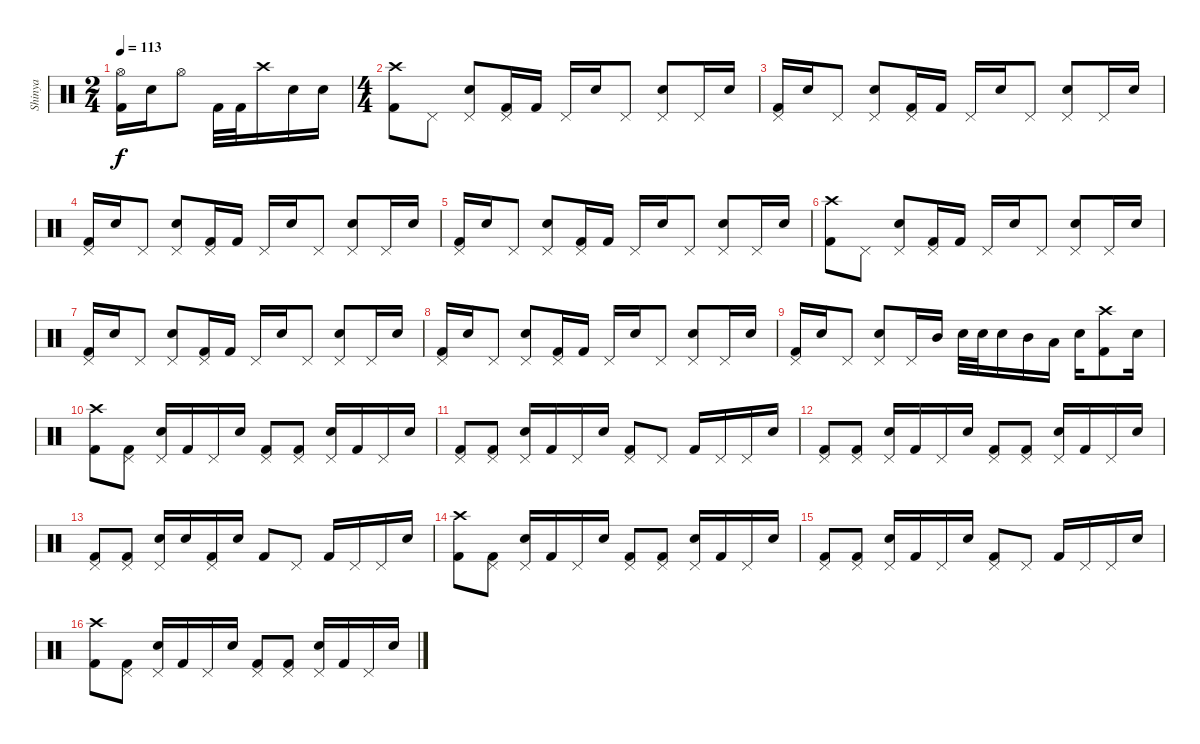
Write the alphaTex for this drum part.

\track ("Shinya" "Shinya") {instrument percussion}
\staff {score}
\articulation defaults
\ts (2 4)
\tempo 113
\clef neutral
\ks c
("Hi-Hat (open)" "Kick (hit) 2").16{dy f} "Electric Snare (hit)".16 "Hi-Hat (open)".8 "Kick (hit) 2".32 "Kick (hit) 2".32 "Crash high (hit)".16 "Electric Snare (hit)".16 "Electric Snare (hit)".16 |
\ts (4 4)
("Crash high (hit)" "Kick (hit) 2").8 "Pedal Hi-Hat (hit)".8 ("Pedal Hi-Hat (hit)" "Electric Snare (hit)").8 ("Pedal Hi-Hat (hit)" "Kick (hit) 2").16 "Kick (hit) 2".16 "Pedal Hi-Hat (hit)".16 "Electric Snare (hit)".16 "Pedal Hi-Hat (hit)".8 ("Pedal Hi-Hat (hit)" "Electric Snare (hit)").8 "Pedal Hi-Hat (hit)".16 "Electric Snare (hit)".16 |
("Pedal Hi-Hat (hit)" "Kick (hit) 2").16 "Electric Snare (hit)".16 "Pedal Hi-Hat (hit)".8 ("Pedal Hi-Hat (hit)" "Electric Snare (hit)").8 ("Pedal Hi-Hat (hit)" "Kick (hit) 2").16 "Kick (hit) 2".16 "Pedal Hi-Hat (hit)".16 "Electric Snare (hit)".16 "Pedal Hi-Hat (hit)".8 ("Pedal Hi-Hat (hit)" "Electric Snare (hit)").8 "Pedal Hi-Hat (hit)".16 "Electric Snare (hit)".16 |
("Pedal Hi-Hat (hit)" "Kick (hit) 2").16 "Electric Snare (hit)".16 "Pedal Hi-Hat (hit)".8 ("Pedal Hi-Hat (hit)" "Electric Snare (hit)").8 ("Pedal Hi-Hat (hit)" "Kick (hit) 2").16 "Kick (hit) 2".16 "Pedal Hi-Hat (hit)".16 "Electric Snare (hit)".16 "Pedal Hi-Hat (hit)".8 ("Pedal Hi-Hat (hit)" "Electric Snare (hit)").8 "Pedal Hi-Hat (hit)".16 "Electric Snare (hit)".16 |
("Pedal Hi-Hat (hit)" "Kick (hit) 2").16 "Electric Snare (hit)".16 "Pedal Hi-Hat (hit)".8 ("Pedal Hi-Hat (hit)" "Electric Snare (hit)").8 ("Pedal Hi-Hat (hit)" "Kick (hit) 2").16 "Kick (hit) 2".16 "Pedal Hi-Hat (hit)".16 "Electric Snare (hit)".16 "Pedal Hi-Hat (hit)".8 ("Pedal Hi-Hat (hit)" "Electric Snare (hit)").8 "Pedal Hi-Hat (hit)".16 "Electric Snare (hit)".16 |
("Crash high (hit)" "Kick (hit) 2").8 "Pedal Hi-Hat (hit)".8 ("Pedal Hi-Hat (hit)" "Electric Snare (hit)").8 ("Pedal Hi-Hat (hit)" "Kick (hit) 2").16 "Kick (hit) 2".16 "Pedal Hi-Hat (hit)".16 "Electric Snare (hit)".16 "Pedal Hi-Hat (hit)".8 ("Pedal Hi-Hat (hit)" "Electric Snare (hit)").8 "Pedal Hi-Hat (hit)".16 "Electric Snare (hit)".16 |
("Pedal Hi-Hat (hit)" "Kick (hit) 2").16 "Electric Snare (hit)".16 "Pedal Hi-Hat (hit)".8 ("Pedal Hi-Hat (hit)" "Electric Snare (hit)").8 ("Pedal Hi-Hat (hit)" "Kick (hit) 2").16 "Kick (hit) 2".16 "Pedal Hi-Hat (hit)".16 "Electric Snare (hit)".16 "Pedal Hi-Hat (hit)".8 ("Pedal Hi-Hat (hit)" "Electric Snare (hit)").8 "Pedal Hi-Hat (hit)".16 "Electric Snare (hit)".16 |
("Pedal Hi-Hat (hit)" "Kick (hit) 2").16 "Electric Snare (hit)".16 "Pedal Hi-Hat (hit)".8 ("Pedal Hi-Hat (hit)" "Electric Snare (hit)").8 ("Pedal Hi-Hat (hit)" "Kick (hit) 2").16 "Kick (hit) 2".16 "Pedal Hi-Hat (hit)".16 "Electric Snare (hit)".16 "Pedal Hi-Hat (hit)".8 ("Pedal Hi-Hat (hit)" "Electric Snare (hit)").8 "Pedal Hi-Hat (hit)".16 "Electric Snare (hit)".16 |
("Pedal Hi-Hat (hit)" "Kick (hit) 2").16 "Electric Snare (hit)".16 "Pedal Hi-Hat (hit)".8 ("Pedal Hi-Hat (hit)" "Electric Snare (hit)").8 "Pedal Hi-Hat (hit)".16 "Mid Tom (hit)".16 "Electric Snare (hit)".32 "Electric Snare (hit)".32 "Electric Snare (hit)".16 "Mid Tom (hit)".16 "Low Tom (hit)".16 "Electric Snare (hit)".16 ("Crash high (hit)" "Kick (hit) 2").8 "Electric Snare (hit)".16 |
("Crash high (hit)" "Kick (hit) 2").8 ("Pedal Hi-Hat (hit)" "Kick (hit) 2").8 ("Pedal Hi-Hat (hit)" "Electric Snare (hit)").16 "Kick (hit) 2".16 "Pedal Hi-Hat (hit)".16 "Electric Snare (hit)".16 ("Pedal Hi-Hat (hit)" "Kick (hit) 2").8 ("Pedal Hi-Hat (hit)" "Kick (hit) 2").8 ("Pedal Hi-Hat (hit)" "Electric Snare (hit)").16 "Kick (hit) 2".16 "Pedal Hi-Hat (hit)".16 "Electric Snare (hit)".16 |
("Pedal Hi-Hat (hit)" "Kick (hit) 2").8 ("Pedal Hi-Hat (hit)" "Kick (hit) 2").8 ("Pedal Hi-Hat (hit)" "Electric Snare (hit)").16 "Kick (hit) 2".16 "Pedal Hi-Hat (hit)".16 "Electric Snare (hit)".16 ("Pedal Hi-Hat (hit)" "Kick (hit) 2").8 "Pedal Hi-Hat (hit)".8 "Kick (hit) 2".16 "Pedal Hi-Hat (hit)".16 "Pedal Hi-Hat (hit)".16 "Electric Snare (hit)".16 |
("Pedal Hi-Hat (hit)" "Kick (hit) 2").8 ("Pedal Hi-Hat (hit)" "Kick (hit) 2").8 ("Pedal Hi-Hat (hit)" "Electric Snare (hit)").16 "Kick (hit) 2".16 "Pedal Hi-Hat (hit)".16 "Electric Snare (hit)".16 ("Pedal Hi-Hat (hit)" "Kick (hit) 2").8 ("Pedal Hi-Hat (hit)" "Kick (hit) 2").8 ("Pedal Hi-Hat (hit)" "Electric Snare (hit)").16 "Kick (hit) 2".16 "Pedal Hi-Hat (hit)".16 "Electric Snare (hit)".16 |
("Pedal Hi-Hat (hit)" "Kick (hit) 2").8 ("Pedal Hi-Hat (hit)" "Kick (hit) 2").8 ("Pedal Hi-Hat (hit)" "Electric Snare (hit)").16 "Electric Snare (hit)".16 ("Pedal Hi-Hat (hit)" "Kick (hit) 2").16 "Electric Snare (hit)".16 "Kick (hit) 2".8 "Pedal Hi-Hat (hit)".8 "Kick (hit) 2".16 "Pedal Hi-Hat (hit)".16 "Pedal Hi-Hat (hit)".16 "Electric Snare (hit)".16 |
("Crash high (hit)" "Kick (hit) 2").8 ("Pedal Hi-Hat (hit)" "Kick (hit) 2").8 ("Pedal Hi-Hat (hit)" "Electric Snare (hit)").16 "Kick (hit) 2".16 "Pedal Hi-Hat (hit)".16 "Electric Snare (hit)".16 ("Pedal Hi-Hat (hit)" "Kick (hit) 2").8 ("Pedal Hi-Hat (hit)" "Kick (hit) 2").8 ("Pedal Hi-Hat (hit)" "Electric Snare (hit)").16 "Kick (hit) 2".16 "Pedal Hi-Hat (hit)".16 "Electric Snare (hit)".16 |
("Pedal Hi-Hat (hit)" "Kick (hit) 2").8 ("Pedal Hi-Hat (hit)" "Kick (hit) 2").8 ("Pedal Hi-Hat (hit)" "Electric Snare (hit)").16 "Kick (hit) 2".16 "Pedal Hi-Hat (hit)".16 "Electric Snare (hit)".16 ("Pedal Hi-Hat (hit)" "Kick (hit) 2").8 "Pedal Hi-Hat (hit)".8 "Kick (hit) 2".16 "Pedal Hi-Hat (hit)".16 "Pedal Hi-Hat (hit)".16 "Electric Snare (hit)".16 |
("Crash high (hit)" "Kick (hit) 2").8 ("Pedal Hi-Hat (hit)" "Kick (hit) 2").8 ("Pedal Hi-Hat (hit)" "Electric Snare (hit)").16 "Kick (hit) 2".16 "Pedal Hi-Hat (hit)".16 "Electric Snare (hit)".16 ("Pedal Hi-Hat (hit)" "Kick (hit) 2").8 ("Pedal Hi-Hat (hit)" "Kick (hit) 2").8 ("Pedal Hi-Hat (hit)" "Electric Snare (hit)").16 "Kick (hit) 2".16 "Pedal Hi-Hat (hit)".16 "Electric Snare (hit)".16
